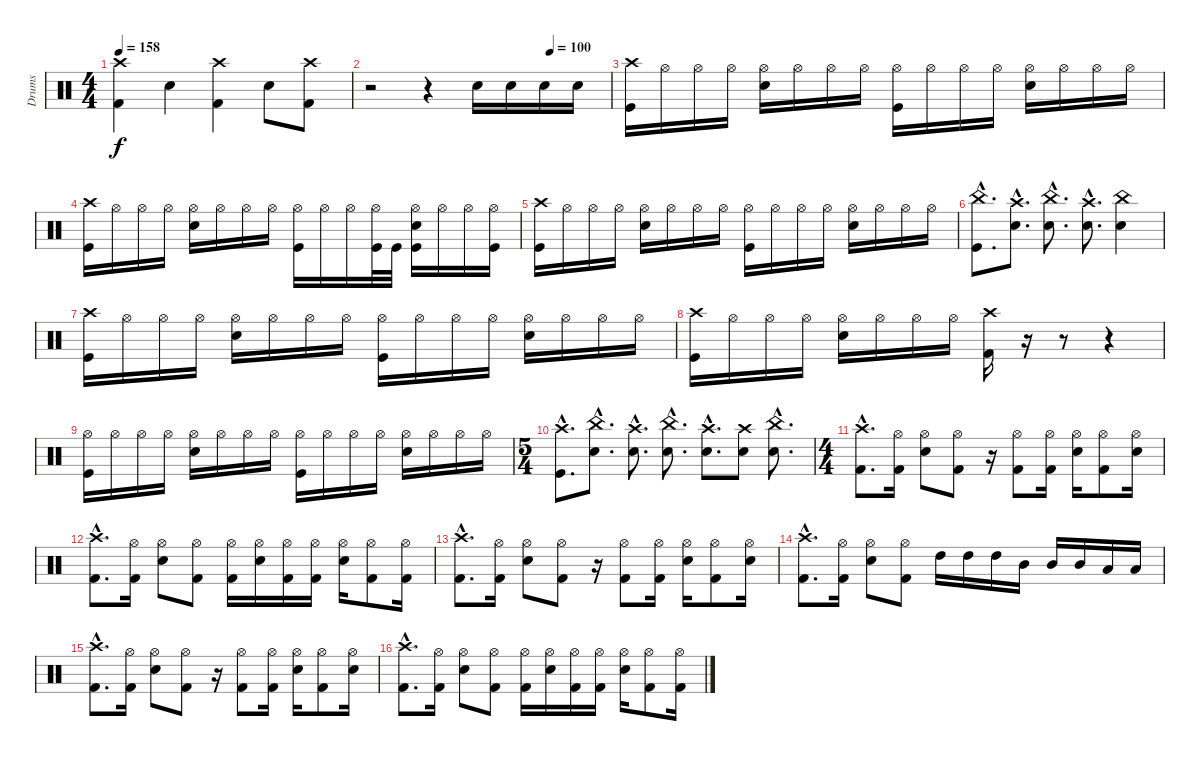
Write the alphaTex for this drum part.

\track ("Drums" "Drums") {instrument percussion}
\staff {score}
\articulation defaults
\ts (4 4)
\tempo 158
\clef neutral
\ks c
("Crash high (hit)" "Kick (hit) 2").4{dy f} "Electric Snare (hit)".4 ("Crash high (hit)" "Kick (hit) 2").4 "Electric Snare (hit)".8 ("Crash high (hit)" "Kick (hit) 2").8 |
\tempo (100 0.75)
r.2 r.4 "Electric Snare (hit)".16 "Electric Snare (hit)".16 "Electric Snare (hit)".16 "Electric Snare (hit)".16 |
("Crash high (hit)" "Kick (hit)").16 "Hi-Hat (open)".16 "Hi-Hat (open)".16 "Hi-Hat (open)".16 ("Hi-Hat (open)" "Electric Snare (hit)").16 "Hi-Hat (open)".16 "Hi-Hat (open)".16 "Hi-Hat (open)".16 ("Hi-Hat (open)" "Kick (hit)").16 "Hi-Hat (open)".16 "Hi-Hat (open)".16 "Hi-Hat (open)".16 ("Hi-Hat (open)" "Electric Snare (hit)").16 "Hi-Hat (open)".16 "Hi-Hat (open)".16 "Hi-Hat (open)".16 |
("Crash high (hit)" "Kick (hit)").16 "Hi-Hat (open)".16 "Hi-Hat (open)".16 "Hi-Hat (open)".16 ("Hi-Hat (open)" "Electric Snare (hit)").16 "Hi-Hat (open)".16 "Hi-Hat (open)".16 "Hi-Hat (open)".16 ("Hi-Hat (open)" "Kick (hit)").16 "Hi-Hat (open)".16 "Hi-Hat (open)".16 ("Hi-Hat (open)" "Kick (hit)").32 "Kick (hit)".32 ("Hi-Hat (open)" "Electric Snare (hit)" "Kick (hit)").16 "Hi-Hat (open)".16 "Hi-Hat (open)".16 ("Hi-Hat (open)" "Kick (hit)").16 |
("Crash high (hit)" "Kick (hit)").16 "Hi-Hat (open)".16 "Hi-Hat (open)".16 "Hi-Hat (open)".16 ("Hi-Hat (open)" "Electric Snare (hit)").16 "Hi-Hat (open)".16 "Hi-Hat (open)".16 "Hi-Hat (open)".16 ("Hi-Hat (open)" "Kick (hit)").16 "Hi-Hat (open)".16 "Hi-Hat (open)".16 "Hi-Hat (open)".16 ("Hi-Hat (open)" "Electric Snare (hit)").16 "Hi-Hat (open)".16 "Hi-Hat (open)".16 "Hi-Hat (open)".16 |
("China (hit)"{hac} "Kick (hit)"{hac}).8{d} ("Crash high (hit)"{hac} "Electric Snare (hit)"{hac}).8{d} ("China (hit)"{hac} "Electric Snare (hit)"{hac}).8{d} ("Crash high (hit)"{hac} "Electric Snare (hit)"{hac}).8{d} ("China (hit)" "Electric Snare (hit)").4 |
("Crash high (hit)" "Kick (hit)").16 "Hi-Hat (open)".16 "Hi-Hat (open)".16 "Hi-Hat (open)".16 ("Hi-Hat (open)" "Electric Snare (hit)").16 "Hi-Hat (open)".16 "Hi-Hat (open)".16 "Hi-Hat (open)".16 ("Hi-Hat (open)" "Kick (hit)").16 "Hi-Hat (open)".16 "Hi-Hat (open)".16 "Hi-Hat (open)".16 ("Hi-Hat (open)" "Electric Snare (hit)").16 "Hi-Hat (open)".16 "Hi-Hat (open)".16 "Hi-Hat (open)".16 |
("Crash high (hit)" "Kick (hit)").16 "Hi-Hat (open)".16 "Hi-Hat (open)".16 "Hi-Hat (open)".16 ("Hi-Hat (open)" "Electric Snare (hit)").16 "Hi-Hat (open)".16 "Hi-Hat (open)".16 "Hi-Hat (open)".16 ("Crash high (hit)" "Kick (hit) 2").16 r.16 r.8 r.4 |
("Hi-Hat (open)" "Kick (hit)").16 "Hi-Hat (open)".16 "Hi-Hat (open)".16 "Hi-Hat (open)".16 ("Hi-Hat (open)" "Electric Snare (hit)").16 "Hi-Hat (open)".16 "Hi-Hat (open)".16 "Hi-Hat (open)".16 ("Hi-Hat (open)" "Kick (hit)").16 "Hi-Hat (open)".16 "Hi-Hat (open)".16 "Hi-Hat (open)".16 ("Hi-Hat (open)" "Electric Snare (hit)").16 "Hi-Hat (open)".16 "Hi-Hat (open)".16 "Hi-Hat (open)".16 |
\ts (5 4)
("Crash high (hit)"{hac} "Kick (hit)"{hac}).8{d} ("China (hit)"{hac} "Electric Snare (hit)"{hac}).8{d} ("Crash high (hit)"{hac} "Electric Snare (hit)"{hac}).8{d} ("China (hit)"{hac} "Electric Snare (hit)"{hac}).8{d} ("Crash high (hit)"{hac} "Electric Snare (hit)"{hac}).8{d} ("Crash high (hit)" "Electric Snare (hit)").8 ("China (hit)"{hac} "Electric Snare (hit)"{hac}).8{d} |
\ts (4 4)
("Crash high (hit)"{hac} "Kick (hit) 2"{hac}).8{d} ("Hi-Hat (open)" "Kick (hit) 2").16 ("Hi-Hat (open)" "Electric Snare (hit)").8 ("Hi-Hat (open)" "Kick (hit) 2").8 r.16 ("Hi-Hat (open)" "Kick (hit) 2").8 ("Hi-Hat (open)" "Kick (hit) 2").16 ("Hi-Hat (open)" "Electric Snare (hit)").16 ("Hi-Hat (open)" "Kick (hit) 2").8 ("Hi-Hat (open)" "Electric Snare (hit)").16 |
("Crash high (hit)"{hac} "Kick (hit) 2"{hac}).8{d} ("Hi-Hat (open)" "Kick (hit) 2").16 ("Hi-Hat (open)" "Electric Snare (hit)").8 ("Hi-Hat (open)" "Kick (hit) 2").8 ("Hi-Hat (open)" "Kick (hit) 2").16 ("Hi-Hat (open)" "Electric Snare (hit)").16 ("Hi-Hat (open)" "Kick (hit) 2").16 ("Hi-Hat (open)" "Kick (hit) 2").16 ("Hi-Hat (open)" "Electric Snare (hit)").16 ("Hi-Hat (open)" "Kick (hit) 2").8 ("Hi-Hat (open)" "Kick (hit) 2").16 |
("Crash high (hit)"{hac} "Kick (hit) 2"{hac}).8{d} ("Hi-Hat (open)" "Kick (hit) 2").16 ("Hi-Hat (open)" "Electric Snare (hit)").8 ("Hi-Hat (open)" "Kick (hit) 2").8 r.16 ("Hi-Hat (open)" "Kick (hit) 2").8 ("Hi-Hat (open)" "Kick (hit) 2").16 ("Hi-Hat (open)" "Electric Snare (hit)").16 ("Hi-Hat (open)" "Kick (hit) 2").8 ("Hi-Hat (open)" "Electric Snare (hit)").16 |
("Crash high (hit)"{hac} "Kick (hit) 2"{hac}).8{d} ("Hi-Hat (open)" "Kick (hit) 2").16 ("Hi-Hat (open)" "Electric Snare (hit)").8 ("Hi-Hat (open)" "Kick (hit) 2").8 "High Tom (hit)".16 "High Tom (hit)".16 "High Tom (hit)".16 "Mid Tom (hit)".16 "Mid Tom (hit)".16 "Mid Tom (hit)".16 "Low Tom (hit)".16 "Low Tom (hit)".16 |
("Crash high (hit)"{hac} "Kick (hit) 2"{hac}).8{d} ("Hi-Hat (open)" "Kick (hit) 2").16 ("Hi-Hat (open)" "Electric Snare (hit)").8 ("Hi-Hat (open)" "Kick (hit) 2").8 r.16 ("Hi-Hat (open)" "Kick (hit) 2").8 ("Hi-Hat (open)" "Kick (hit) 2").16 ("Hi-Hat (open)" "Electric Snare (hit)").16 ("Hi-Hat (open)" "Kick (hit) 2").8 ("Hi-Hat (open)" "Electric Snare (hit)").16 |
("Crash high (hit)"{hac} "Kick (hit) 2"{hac}).8{d} ("Hi-Hat (open)" "Kick (hit) 2").16 ("Hi-Hat (open)" "Electric Snare (hit)").8 ("Hi-Hat (open)" "Kick (hit) 2").8 ("Hi-Hat (open)" "Kick (hit) 2").16 ("Hi-Hat (open)" "Electric Snare (hit)").16 ("Hi-Hat (open)" "Kick (hit) 2").16 ("Hi-Hat (open)" "Kick (hit) 2").16 ("Hi-Hat (open)" "Electric Snare (hit)").16 ("Hi-Hat (open)" "Kick (hit) 2").8 ("Hi-Hat (open)" "Kick (hit) 2").16
